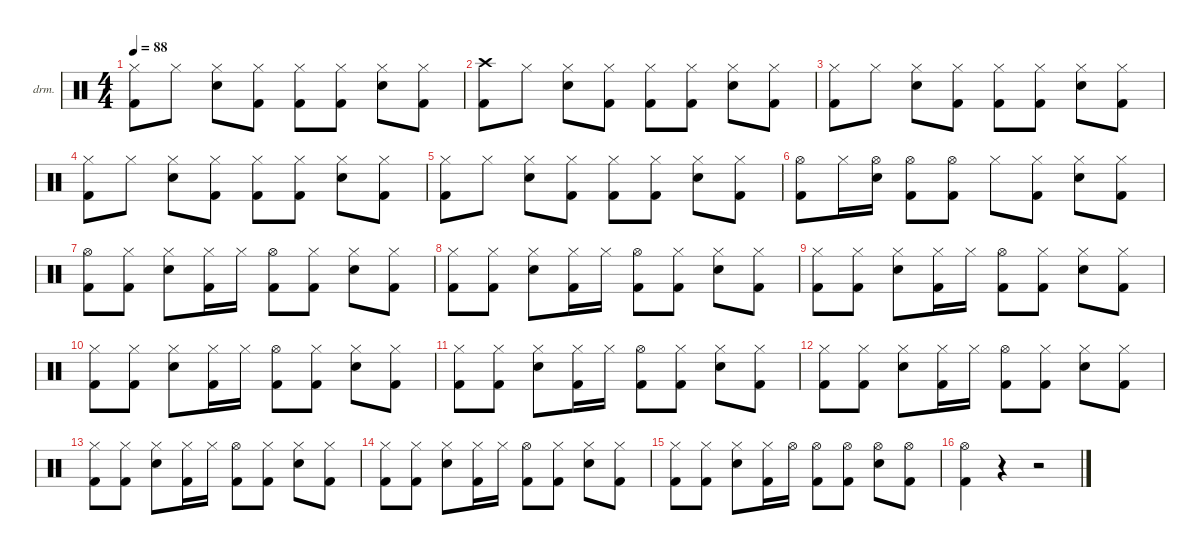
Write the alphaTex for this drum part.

\defaultSystemsLayout 4
\hideDynamics
\bracketExtendMode nobrackets
\firstSystemTrackNameOrientation horizontal
\otherSystemsTrackNameOrientation horizontal
\track ("Drums" "drm.") {instrument percussion}
\staff {score}
\articulation defaults
\ts (4 4)
\tempo 88
\clef neutral
\ks c
("Hi-Hat (closed)" "Kick (hit) 2").8{dy f} "Hi-Hat (closed)".8 ("Hi-Hat (closed)" "Snare (hit) 2").8 ("Hi-Hat (closed)" "Kick (hit) 2").8 ("Hi-Hat (closed)" "Kick (hit) 2").8 ("Hi-Hat (closed)" "Kick (hit) 2").8 ("Hi-Hat (closed)" "Snare (hit) 2").8 ("Hi-Hat (closed)" "Kick (hit) 2").8 |
("Crash high (hit)" "Kick (hit) 2").8 "Hi-Hat (closed)".8 ("Hi-Hat (closed)" "Snare (hit) 2").8 ("Hi-Hat (closed)" "Kick (hit) 2").8 ("Hi-Hat (closed)" "Kick (hit) 2").8 ("Hi-Hat (closed)" "Kick (hit) 2").8 ("Hi-Hat (closed)" "Snare (hit) 2").8 ("Hi-Hat (closed)" "Kick (hit) 2").8 |
("Hi-Hat (closed)" "Kick (hit) 2").8 "Hi-Hat (closed)".8 ("Hi-Hat (closed)" "Snare (hit) 2").8 ("Hi-Hat (closed)" "Kick (hit) 2").8 ("Hi-Hat (closed)" "Kick (hit) 2").8 ("Hi-Hat (closed)" "Kick (hit) 2").8 ("Hi-Hat (closed)" "Snare (hit) 2").8 ("Hi-Hat (closed)" "Kick (hit) 2").8 |
("Hi-Hat (closed)" "Kick (hit) 2").8 "Hi-Hat (closed)".8 ("Hi-Hat (closed)" "Snare (hit) 2").8 ("Hi-Hat (closed)" "Kick (hit) 2").8 ("Hi-Hat (closed)" "Kick (hit) 2").8 ("Hi-Hat (closed)" "Kick (hit) 2").8 ("Hi-Hat (closed)" "Snare (hit) 2").8 ("Hi-Hat (closed)" "Kick (hit) 2").8 |
("Hi-Hat (closed)" "Kick (hit) 2").8 "Hi-Hat (closed)".8 ("Hi-Hat (closed)" "Snare (hit) 2").8 ("Hi-Hat (closed)" "Kick (hit) 2").8 ("Hi-Hat (closed)" "Kick (hit) 2").8 ("Hi-Hat (closed)" "Kick (hit) 2").8 ("Hi-Hat (closed)" "Snare (hit) 2").8 ("Hi-Hat (closed)" "Kick (hit) 2").8 |
("Hi-Hat (open)" "Kick (hit) 2").8 "Hi-Hat (closed)".16 ("Hi-Hat (open)" "Snare (hit) 2").16 ("Hi-Hat (open)" "Kick (hit) 2").8 ("Hi-Hat (open)" "Kick (hit) 2").8 "Hi-Hat (closed)".8 ("Hi-Hat (closed)" "Kick (hit) 2").8 ("Hi-Hat (closed)" "Snare (hit) 2").8 ("Hi-Hat (closed)" "Kick (hit) 2").8 |
("Hi-Hat (open)" "Kick (hit) 2").8 ("Hi-Hat (closed)" "Kick (hit) 2").8 ("Hi-Hat (closed)" "Snare (hit) 2").8 ("Hi-Hat (closed)" "Kick (hit) 2").16 "Hi-Hat (closed)".16 ("Hi-Hat (open)" "Kick (hit) 2").8 ("Hi-Hat (closed)" "Kick (hit) 2").8 ("Hi-Hat (closed)" "Snare (hit) 2").8 ("Hi-Hat (closed)" "Kick (hit) 2").8 |
("Hi-Hat (closed)" "Kick (hit) 2").8 ("Hi-Hat (closed)" "Kick (hit) 2").8 ("Hi-Hat (closed)" "Snare (hit) 2").8 ("Hi-Hat (closed)" "Kick (hit) 2").16 "Hi-Hat (closed)".16 ("Hi-Hat (open)" "Kick (hit) 2").8 ("Hi-Hat (closed)" "Kick (hit) 2").8 ("Hi-Hat (closed)" "Snare (hit) 2").8 ("Hi-Hat (closed)" "Kick (hit) 2").8 |
("Hi-Hat (closed)" "Kick (hit) 2").8 ("Hi-Hat (closed)" "Kick (hit) 2").8 ("Hi-Hat (closed)" "Snare (hit) 2").8 ("Hi-Hat (closed)" "Kick (hit) 2").16 "Hi-Hat (closed)".16 ("Hi-Hat (open)" "Kick (hit) 2").8 ("Hi-Hat (closed)" "Kick (hit) 2").8 ("Hi-Hat (closed)" "Snare (hit) 2").8 ("Hi-Hat (closed)" "Kick (hit) 2").8 |
("Hi-Hat (closed)" "Kick (hit) 2").8 ("Hi-Hat (closed)" "Kick (hit) 2").8 ("Hi-Hat (closed)" "Snare (hit) 2").8 ("Hi-Hat (closed)" "Kick (hit) 2").16 "Hi-Hat (closed)".16 ("Hi-Hat (open)" "Kick (hit) 2").8 ("Hi-Hat (closed)" "Kick (hit) 2").8 ("Hi-Hat (closed)" "Snare (hit) 2").8 ("Hi-Hat (closed)" "Kick (hit) 2").8 |
("Hi-Hat (closed)" "Kick (hit) 2").8 ("Hi-Hat (closed)" "Kick (hit) 2").8 ("Hi-Hat (closed)" "Snare (hit) 2").8 ("Hi-Hat (closed)" "Kick (hit) 2").16 "Hi-Hat (closed)".16 ("Hi-Hat (open)" "Kick (hit) 2").8 ("Hi-Hat (closed)" "Kick (hit) 2").8 ("Hi-Hat (closed)" "Snare (hit) 2").8 ("Hi-Hat (closed)" "Kick (hit) 2").8 |
("Hi-Hat (closed)" "Kick (hit) 2").8 ("Hi-Hat (closed)" "Kick (hit) 2").8 ("Hi-Hat (closed)" "Snare (hit) 2").8 ("Hi-Hat (closed)" "Kick (hit) 2").16 "Hi-Hat (closed)".16 ("Hi-Hat (open)" "Kick (hit) 2").8 ("Hi-Hat (closed)" "Kick (hit) 2").8 ("Hi-Hat (closed)" "Snare (hit) 2").8 ("Hi-Hat (closed)" "Kick (hit) 2").8 |
("Hi-Hat (closed)" "Kick (hit) 2").8 ("Hi-Hat (closed)" "Kick (hit) 2").8 ("Hi-Hat (closed)" "Snare (hit) 2").8 ("Hi-Hat (closed)" "Kick (hit) 2").16 "Hi-Hat (closed)".16 ("Hi-Hat (open)" "Kick (hit) 2").8 ("Hi-Hat (closed)" "Kick (hit) 2").8 ("Hi-Hat (closed)" "Snare (hit) 2").8 ("Hi-Hat (closed)" "Kick (hit) 2").8 |
("Hi-Hat (closed)" "Kick (hit) 2").8 ("Hi-Hat (closed)" "Kick (hit) 2").8 ("Hi-Hat (closed)" "Snare (hit) 2").8 ("Hi-Hat (closed)" "Kick (hit) 2").16 "Hi-Hat (closed)".16 ("Hi-Hat (open)" "Kick (hit) 2").8 ("Hi-Hat (closed)" "Kick (hit) 2").8 ("Hi-Hat (closed)" "Snare (hit) 2").8 ("Hi-Hat (closed)" "Kick (hit) 2").8 |
("Hi-Hat (closed)" "Kick (hit) 2").8 ("Hi-Hat (closed)" "Kick (hit) 2").8 ("Hi-Hat (closed)" "Snare (hit) 2").8 ("Hi-Hat (closed)" "Kick (hit) 2").16 "Hi-Hat (open)".16 ("Hi-Hat (open)" "Kick (hit) 2").8 ("Hi-Hat (open)" "Kick (hit) 2").8 ("Hi-Hat (open)" "Snare (hit) 2").8 ("Hi-Hat (open)" "Kick (hit) 2").8 |
("Hi-Hat (open)" "Kick (hit) 2").4 r.4 r.2
